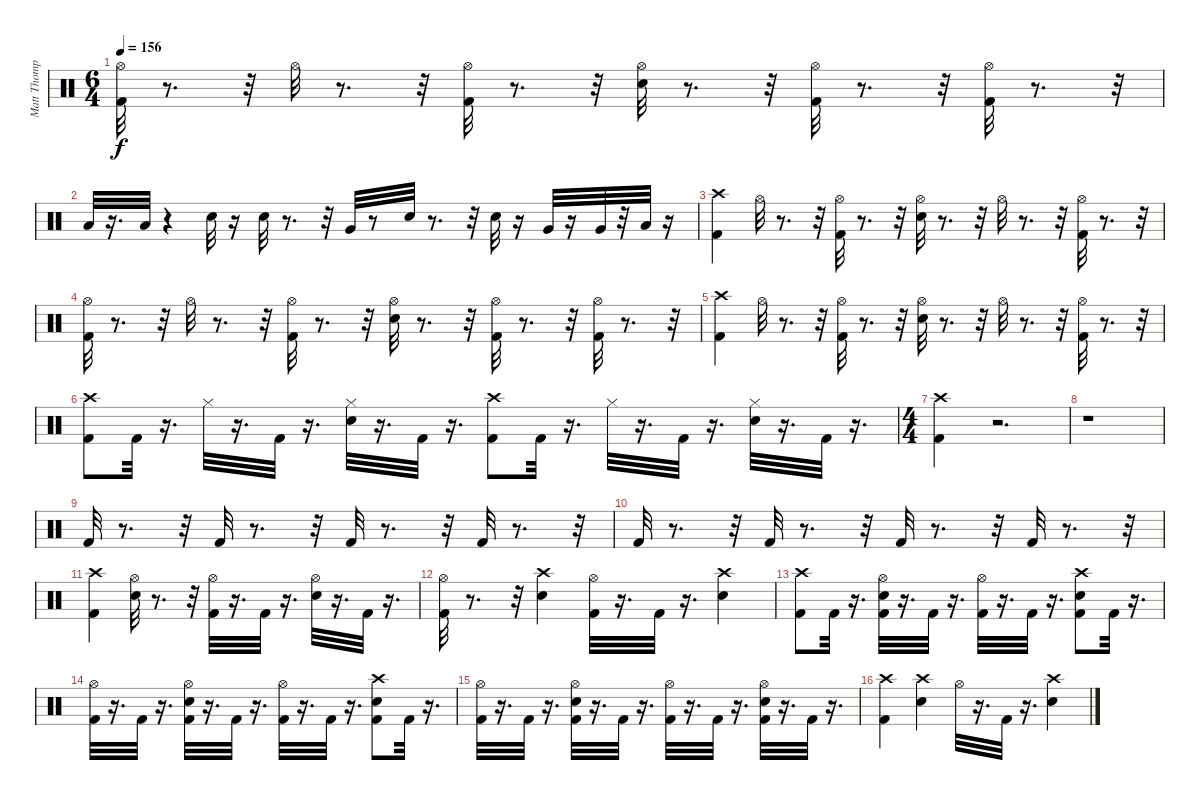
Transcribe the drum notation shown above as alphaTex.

\track ("Matt Thompson" "Matt Thomp") {instrument percussion}
\staff {score}
\articulation defaults
\ts (6 4)
\tempo 156
\clef neutral
\ks c
("Hi-Hat (open)" "Kick (hit) 2").32{dy f} r.8{d} r.32 "Hi-Hat (open)".32 r.8{d} r.32 ("Hi-Hat (open)" "Kick (hit) 2").32 r.8{d} r.32 ("Hi-Hat (open)" "Snare (hit) 2").32 r.8{d} r.32 ("Hi-Hat (open)" "Kick (hit) 2").32 r.8{d} r.32 ("Hi-Hat (open)" "Kick (hit) 2").32 r.8{d} r.32 |
"Low Tom (hit)".32 r.16{d} "Low Tom (hit)".32 r.4 "Snare (hit) 2".32 r.16 "Snare (hit) 2".32 r.8{d} r.32 "Very Low Tom (hit)".32 r.8 "Snare (hit) 2".32 r.8{d} r.32 "Snare (hit) 2".32 r.16 "Very Low Tom (hit)".32 r.16 "Very Low Tom (hit)".32 r.32 "Low Tom (hit)".32 r.16 |
("Crash high (hit)" "Kick (hit) 2").4 "Hi-Hat (open)".32 r.8{d} r.32 ("Kick (hit) 2" "Hi-Hat (open)").32 r.8{d} r.32 ("Snare (hit) 2" "Hi-Hat (open)").32 r.8{d} r.32 "Hi-Hat (open)".32 r.8{d} r.32 ("Kick (hit) 2" "Hi-Hat (open)").32 r.8{d} r.32 |
("Hi-Hat (open)" "Kick (hit) 2").32 r.8{d} r.32 "Hi-Hat (open)".32 r.8{d} r.32 ("Hi-Hat (open)" "Kick (hit) 2").32 r.8{d} r.32 ("Hi-Hat (open)" "Snare (hit) 2").32 r.8{d} r.32 ("Hi-Hat (open)" "Kick (hit) 2").32 r.8{d} r.32 ("Hi-Hat (open)" "Kick (hit) 2").32 r.8{d} r.32 |
("Crash high (hit)" "Kick (hit) 2").4 "Hi-Hat (open)".32 r.8{d} r.32 ("Hi-Hat (open)" "Kick (hit) 2").32 r.8{d} r.32 ("Hi-Hat (open)" "Snare (hit) 2").32 r.8{d} r.32 "Hi-Hat (open)".32 r.8{d} r.32 ("Hi-Hat (open)" "Kick (hit) 2").32 r.8{d} r.32 |
("Crash high (hit)" "Kick (hit) 2").8 "Kick (hit) 2".32 r.16{d} "Hi-Hat (closed)".32 r.16{d} "Kick (hit) 2".32 r.16{d} ("Snare (hit) 2" "Hi-Hat (closed)").32 r.16{d} "Kick (hit) 2".32 r.16{d} ("Crash high (hit)" "Kick (hit) 2").8 "Kick (hit) 2".32 r.16{d} "Hi-Hat (closed)".32 r.16{d} "Kick (hit) 2".32 r.16{d} ("Snare (hit) 2" "Hi-Hat (closed)").32 r.16{d} "Kick (hit) 2".32 r.16{d} |
\ts (4 4)
("Crash high (hit)" "Kick (hit) 2").4 r.2{d} |
r.1 |
"Kick (hit) 2".32 r.8{d} r.32 "Kick (hit) 2".32 r.8{d} r.32 "Kick (hit) 2".32 r.8{d} r.32 "Kick (hit) 2".32 r.8{d} r.32 |
"Kick (hit) 2".32 r.8{d} r.32 "Kick (hit) 2".32 r.8{d} r.32 "Kick (hit) 2".32 r.8{d} r.32 "Kick (hit) 2".32 r.8{d} r.32 |
("Crash high (hit)" "Kick (hit) 2").4 ("Hi-Hat (open)" "Snare (hit) 2").32 r.8{d} r.32 ("Hi-Hat (open)" "Kick (hit) 2").32 r.16{d} "Kick (hit) 2".32 r.16{d} ("Hi-Hat (open)" "Snare (hit) 2").32 r.16{d} "Kick (hit) 2".32 r.16{d} |
("Hi-Hat (open)" "Kick (hit) 2").32 r.8{d} r.32 ("Crash high (hit)" "Snare (hit) 2").4 ("Hi-Hat (open)" "Kick (hit) 2").32 r.16{d} "Kick (hit) 2".32 r.16{d} ("Crash high (hit)" "Snare (hit) 2").4 |
("Crash high (hit)" "Kick (hit) 2").8 "Kick (hit) 2".32 r.16{d} ("Hi-Hat (open)" "Snare (hit) 2" "Kick (hit) 2").32 r.16{d} "Kick (hit) 2".32 r.16{d} ("Hi-Hat (open)" "Kick (hit) 2").32 r.16{d} "Kick (hit) 2".32 r.16{d} ("Crash high (hit)" "Snare (hit) 2" "Kick (hit) 2").8 "Kick (hit) 2".32 r.16{d} |
("Hi-Hat (open)" "Kick (hit) 2").32 r.16{d} "Kick (hit) 2".32 r.16{d} ("Hi-Hat (open)" "Snare (hit) 2" "Kick (hit) 2").32 r.16{d} "Kick (hit) 2".32 r.16{d} ("Hi-Hat (open)" "Kick (hit) 2").32 r.16{d} "Kick (hit) 2".32 r.16{d} ("Crash high (hit)" "Snare (hit) 2" "Kick (hit) 2").8 "Kick (hit) 2".32 r.16{d} |
("Kick (hit) 2" "Hi-Hat (open)").32 r.16{d} "Kick (hit) 2".32 r.16{d} ("Snare (hit) 2" "Kick (hit) 2" "Hi-Hat (open)").32 r.16{d} "Kick (hit) 2".32 r.16{d} ("Kick (hit) 2" "Hi-Hat (open)").32 r.16{d} "Kick (hit) 2".32 r.16{d} ("Hi-Hat (open)" "Snare (hit) 2" "Kick (hit) 2").32 r.16{d} "Kick (hit) 2".32 r.16{d} |
("Crash high (hit)" "Kick (hit) 2").4 ("Crash high (hit)" "Snare (hit) 2").4 "Hi-Hat (open)".32 r.16{d} "Kick (hit) 2".32 r.16{d} ("Crash high (hit)" "Snare (hit) 2").4
